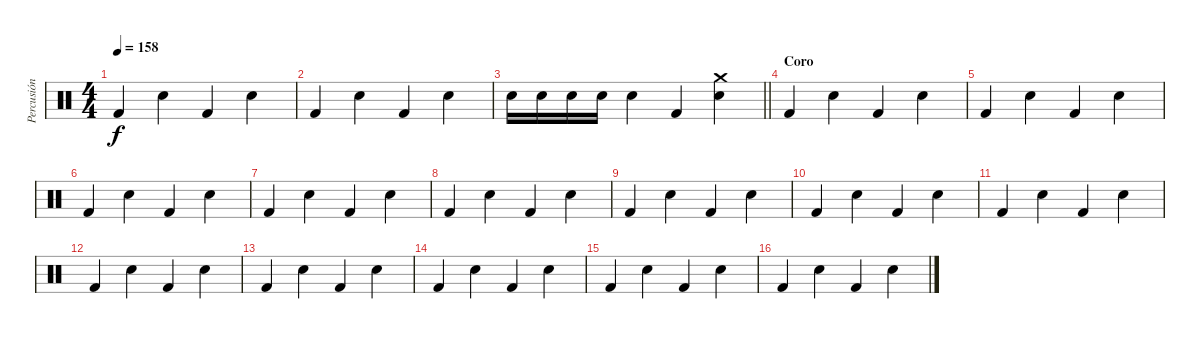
\track ("Percusión" "Percusión") {instrument percussion}
\staff {score}
\articulation defaults
\ts (4 4)
\tempo 158
\clef neutral
\ks c "Kick (hit) 2".4{dy f} "Electric Snare (hit)".4 "Kick (hit) 2".4 "Electric Snare (hit)".4
|
"Kick (hit) 2".4{volume 16} "Electric Snare (hit)".4 "Kick (hit) 2".4 "Electric Snare (hit)".4 |
\barLineRight lightlight "Electric Snare (hit)".16 "Electric Snare (hit)".16 "Electric Snare (hit)".16 "Electric Snare (hit)".16 "Electric Snare (hit)".4 "Kick (hit) 2".4
("Crash medium (hit)" "Electric Snare (hit)").4 |
\section ("" "Coro")
"Kick (hit) 2".4{volume 16} "Electric Snare (hit)".4 "Kick (hit) 2".4 "Electric Snare (hit)".4 |
"Kick (hit) 2".4 "Electric Snare (hit)".4 "Kick (hit) 2".4 "Electric Snare (hit)".4 |
"Kick (hit) 2".4{volume 16} "Electric Snare (hit)".4 "Kick (hit) 2".4 "Electric Snare (hit)".4 |
"Kick (hit) 2".4 "Electric Snare (hit)".4 "Kick (hit) 2".4 "Electric Snare (hit)".4 |
"Kick (hit) 2".4{volume 16} "Electric Snare (hit)".4 "Kick (hit) 2".4 "Electric Snare (hit)".4 |
"Kick (hit) 2".4 "Electric Snare (hit)".4 "Kick (hit) 2".4 "Electric Snare (hit)".4 |
"Kick (hit) 2".4{volume 16} "Electric Snare (hit)".4 "Kick (hit) 2".4 "Electric Snare (hit)".4 |
"Kick (hit) 2".4 "Electric Snare (hit)".4 "Kick (hit) 2".4 "Electric Snare (hit)".4 |
"Kick (hit) 2".4{volume 16} "Electric Snare (hit)".4 "Kick (hit) 2".4 "Electric Snare (hit)".4 |
"Kick (hit) 2".4 "Electric Snare (hit)".4 "Kick (hit) 2".4 "Electric Snare (hit)".4 |
"Kick (hit) 2".4{volume 16} "Electric Snare (hit)".4 "Kick (hit) 2".4 "Electric Snare (hit)".4 |
"Kick (hit) 2".4 "Electric Snare (hit)".4 "Kick (hit) 2".4 "Electric Snare (hit)".4 |
"Kick (hit) 2".4{volume 16} "Electric Snare (hit)".4 "Kick (hit) 2".4 "Electric Snare (hit)".4
